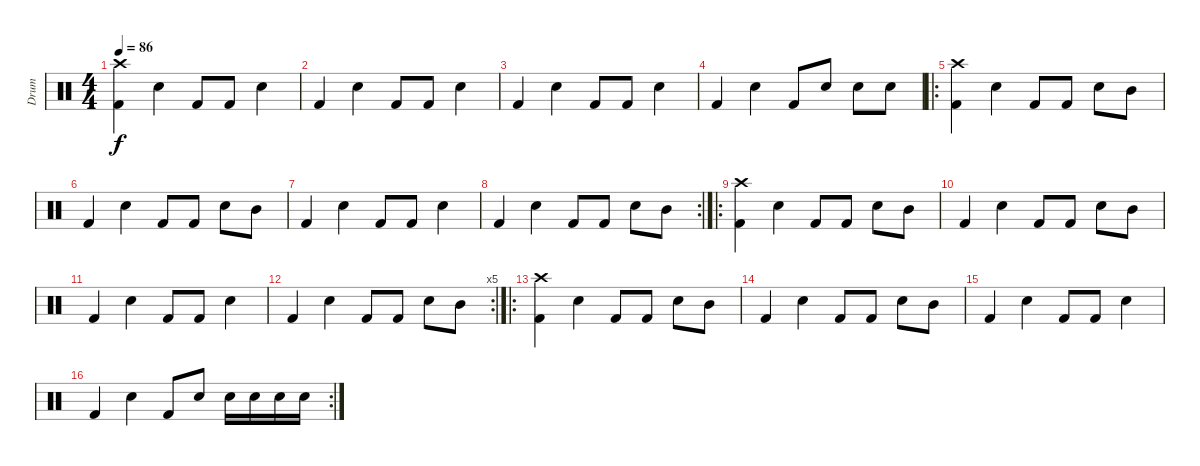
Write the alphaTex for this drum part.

\track ("Drum" "Drum") {instrument percussion}
\staff {score}
\articulation defaults
\ts (4 4)
\tempo 86
\clef neutral
\ks c
("Crash high (hit)" "Kick (hit) 2").4{dy f} "Electric Snare (hit)".4 "Kick (hit) 2".8 "Kick (hit) 2".8 "Electric Snare (hit)".4 |
"Kick (hit) 2".4 "Electric Snare (hit)".4 "Kick (hit) 2".8 "Kick (hit) 2".8 "Electric Snare (hit)".4 |
"Kick (hit) 2".4 "Electric Snare (hit)".4 "Kick (hit) 2".8 "Kick (hit) 2".8 "Electric Snare (hit)".4 |
"Kick (hit) 2".4 "Electric Snare (hit)".4 "Kick (hit) 2".8 "Electric Snare (hit)".8 "Electric Snare (hit)".8 "Electric Snare (hit)".8 |
\ro
("Crash high (hit)" "Kick (hit) 2").4 "Electric Snare (hit)".4 "Kick (hit) 2".8 "Kick (hit) 2".8 "Electric Snare (hit)".8 "Mid Tom (hit)".8 |
"Kick (hit) 2".4 "Electric Snare (hit)".4 "Kick (hit) 2".8 "Kick (hit) 2".8 "Electric Snare (hit)".8 "Mid Tom (hit)".8 |
"Kick (hit) 2".4 "Electric Snare (hit)".4 "Kick (hit) 2".8 "Kick (hit) 2".8 "Electric Snare (hit)".4 |
\rc 2 "Kick (hit) 2".4 "Electric Snare (hit)".4 "Kick (hit) 2".8 "Kick (hit) 2".8 "Electric Snare (hit)".8 "Mid Tom (hit)".8
|
\ro
("Crash high (hit)" "Kick (hit) 2").4 "Electric Snare (hit)".4 "Kick (hit) 2".8 "Kick (hit) 2".8 "Electric Snare (hit)".8 "Mid Tom (hit)".8 |
"Kick (hit) 2".4 "Electric Snare (hit)".4 "Kick (hit) 2".8 "Kick (hit) 2".8 "Electric Snare (hit)".8 "Mid Tom (hit)".8 |
"Kick (hit) 2".4 "Electric Snare (hit)".4 "Kick (hit) 2".8 "Kick (hit) 2".8 "Electric Snare (hit)".4 |
\rc 5 "Kick (hit) 2".4 "Electric Snare (hit)".4 "Kick (hit) 2".8 "Kick (hit) 2".8 "Electric Snare (hit)".8 "Mid Tom (hit)".8
|
\ro
("Crash high (hit)" "Kick (hit) 2").4 "Electric Snare (hit)".4 "Kick (hit) 2".8 "Kick (hit) 2".8 "Electric Snare (hit)".8 "Mid Tom (hit)".8 |
"Kick (hit) 2".4 "Electric Snare (hit)".4 "Kick (hit) 2".8 "Kick (hit) 2".8 "Electric Snare (hit)".8 "Mid Tom (hit)".8 |
"Kick (hit) 2".4 "Electric Snare (hit)".4 "Kick (hit) 2".8 "Kick (hit) 2".8 "Electric Snare (hit)".4 |
\rc 2 "Kick (hit) 2".4 "Electric Snare (hit)".4 "Kick (hit) 2".8 "Electric Snare (hit)".8 "Electric Snare (hit)".16 "Electric Snare (hit)".16 "Electric Snare (hit)".16 "Electric Snare (hit)".16
